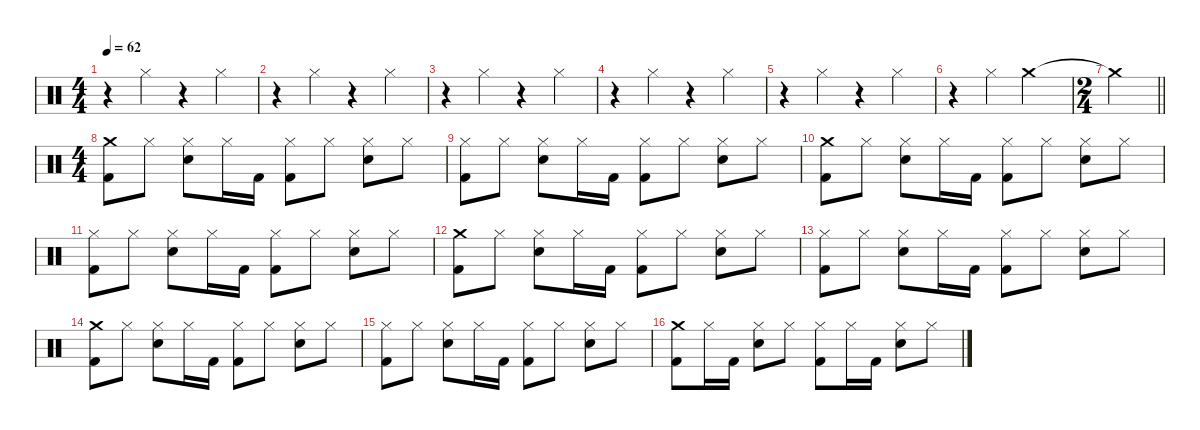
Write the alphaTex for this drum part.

\defaultSystemsLayout 4
\hideDynamics
\bracketExtendMode nobrackets
\singleTrackTrackNamePolicy hidden
\multiTrackTrackNamePolicy hidden
\firstSystemTrackNameMode fullname
\otherSystemsTrackNameOrientation horizontal
\track ("Drums" "drm.") {defaultSystemsLayout 4 instrument percussion}
\staff {score}
\articulation defaults
\ts (4 4)
\tempo 62
\clef neutral
\ks c
r.4{dy f beam Down} "Hi-Hat (closed)".4{beam Down} r.4{beam Down} "Hi-Hat (closed)".4{beam Down} |
r.4{beam Down} "Hi-Hat (closed)".4{beam Down} r.4{beam Down} "Hi-Hat (closed)".4{beam Down} |
r.4{beam Down} "Hi-Hat (closed)".4{beam Down} r.4{beam Down} "Hi-Hat (closed)".4{beam Down} |
r.4{beam Down} "Hi-Hat (closed)".4{beam Down} r.4{beam Down} "Hi-Hat (closed)".4{beam Down} |
r.4{beam Down} "Hi-Hat (closed)".4{beam Down} r.4{beam Down} "Hi-Hat (closed)".4{beam Down} |
r.4{beam Down} "Hi-Hat (closed)".4{beam Down} "Crash medium (hit)".2{beam Down} |
\ts (2 4)
\beaming (8 2 2 2 2)
\barLineRight lightlight "Crash medium (hit)"{t}.2{beam Down}
|
\ts (4 4)
\beaming (8 2 2 2 2)
("Crash medium (hit)" "Kick (hit) 2").8{beam Down} "Hi-Hat (closed)".8{beam Down} ("Hi-Hat (closed)" "Snare (hit) 2").8{beam Down} "Hi-Hat (closed)".16{beam Down} "Kick (hit) 2".16{beam Down} ("Hi-Hat (closed)" "Kick (hit) 2").8{beam Down} "Hi-Hat (closed)".8{beam Down} ("Hi-Hat (closed)" "Snare (hit) 2").8{beam Down} "Hi-Hat (closed)".8{beam Down} |
("Hi-Hat (closed)" "Kick (hit) 2").8{beam Down} "Hi-Hat (closed)".8{beam Down} ("Hi-Hat (closed)" "Snare (hit) 2").8{beam Down} "Hi-Hat (closed)".16{beam Down} "Kick (hit) 2".16{beam Down} ("Hi-Hat (closed)" "Kick (hit) 2").8{beam Down} "Hi-Hat (closed)".8{beam Down} ("Hi-Hat (closed)" "Snare (hit) 2").8{beam Down} "Hi-Hat (closed)".8{beam Down} |
("Crash medium (hit)" "Kick (hit) 2").8{beam Down} "Hi-Hat (closed)".8{beam Down} ("Hi-Hat (closed)" "Snare (hit) 2").8{beam Down} "Hi-Hat (closed)".16{beam Down} "Kick (hit) 2".16{beam Down} ("Hi-Hat (closed)" "Kick (hit) 2").8{beam Down} "Hi-Hat (closed)".8{beam Down} ("Hi-Hat (closed)" "Snare (hit) 2").8{beam Down} "Hi-Hat (closed)".8{beam Down} |
("Hi-Hat (closed)" "Kick (hit) 2").8{beam Down} "Hi-Hat (closed)".8{beam Down} ("Hi-Hat (closed)" "Snare (hit) 2").8{beam Down} "Hi-Hat (closed)".16{beam Down} "Kick (hit) 2".16{beam Down} ("Hi-Hat (closed)" "Kick (hit) 2").8{beam Down} "Hi-Hat (closed)".8{beam Down} ("Hi-Hat (closed)" "Snare (hit) 2").8{beam Down} "Hi-Hat (closed)".8{beam Down} |
("Crash medium (hit)" "Kick (hit) 2").8{beam Down} "Hi-Hat (closed)".8{beam Down} ("Hi-Hat (closed)" "Snare (hit) 2").8{beam Down} "Hi-Hat (closed)".16{beam Down} "Kick (hit) 2".16{beam Down} ("Hi-Hat (closed)" "Kick (hit) 2").8{beam Down} "Hi-Hat (closed)".8{beam Down} ("Hi-Hat (closed)" "Snare (hit) 2").8{beam Down} "Hi-Hat (closed)".8{beam Down} |
("Hi-Hat (closed)" "Kick (hit) 2").8{beam Down} "Hi-Hat (closed)".8{beam Down} ("Hi-Hat (closed)" "Snare (hit) 2").8{beam Down} "Hi-Hat (closed)".16{beam Down} "Kick (hit) 2".16{beam Down} ("Hi-Hat (closed)" "Kick (hit) 2").8{beam Down} "Hi-Hat (closed)".8{beam Down} ("Hi-Hat (closed)" "Snare (hit) 2").8{beam Down} "Hi-Hat (closed)".8{beam Down} |
("Crash medium (hit)" "Kick (hit) 2").8{beam Down} "Hi-Hat (closed)".8{beam Down} ("Hi-Hat (closed)" "Snare (hit) 2").8{beam Down} "Hi-Hat (closed)".16{beam Down} "Kick (hit) 2".16{beam Down} ("Hi-Hat (closed)" "Kick (hit) 2").8{beam Down} "Hi-Hat (closed)".8{beam Down} ("Hi-Hat (closed)" "Snare (hit) 2").8{beam Down} "Hi-Hat (closed)".8{beam Down} |
("Hi-Hat (closed)" "Kick (hit) 2").8{beam Down} "Hi-Hat (closed)".8{beam Down} ("Hi-Hat (closed)" "Snare (hit) 2").8{beam Down} "Hi-Hat (closed)".16{beam Down} "Kick (hit) 2".16{beam Down} ("Hi-Hat (closed)" "Kick (hit) 2").8{beam Down} "Hi-Hat (closed)".8{beam Down} ("Hi-Hat (closed)" "Snare (hit) 2").8{beam Down} "Hi-Hat (closed)".8{beam Down} |
("Crash medium (hit)" "Kick (hit) 2").8{beam Down} "Hi-Hat (closed)".16{beam Down} "Kick (hit) 2".16{beam Down} ("Hi-Hat (closed)" "Snare (hit) 2").8{beam Down} "Hi-Hat (closed)".8{beam Down} ("Hi-Hat (closed)" "Kick (hit) 2").8{beam Down} "Hi-Hat (closed)".16{beam Down} "Kick (hit) 2".16{beam Down} ("Hi-Hat (closed)" "Snare (hit) 2").8{beam Down} "Hi-Hat (closed)".8{beam Down}
